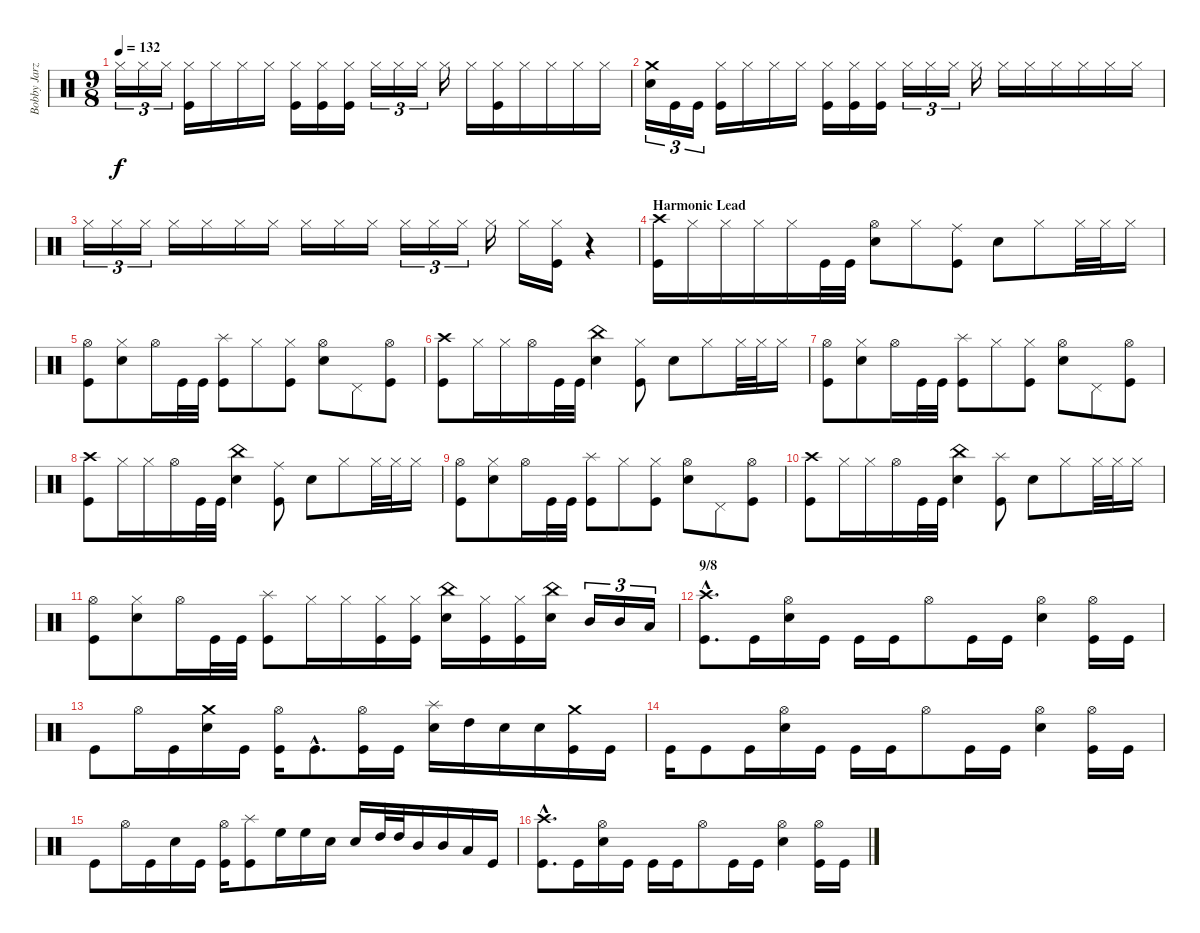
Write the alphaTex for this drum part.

\track ("Bobby Jarzombek" "Bobby Jarz") {instrument percussion}
\staff {score}
\articulation defaults
\ts (9 8)
\tempo 132
\clef neutral
\ks c "Hi-Hat (closed)".16{tu (3 2) dy f} "Hi-Hat (closed)".16{tu (3 2)} "Hi-Hat (closed)".16{tu (3 2)}
("Hi-Hat (closed)" "Kick (hit)").16 "Hi-Hat (closed)".16 "Hi-Hat (closed)".16 "Hi-Hat (closed)".16 ("Hi-Hat (closed)" "Kick (hit)").16 ("Hi-Hat (closed)" "Kick (hit)").16 ("Hi-Hat (closed)" "Kick (hit)").16 "Hi-Hat (closed)".16{tu (3 2)} "Hi-Hat (closed)".16{tu (3 2)} "Hi-Hat (closed)".16{tu (3 2)} "Hi-Hat (closed)".16 "Hi-Hat (closed)".16 ("Hi-Hat (closed)" "Kick (hit)").16 "Hi-Hat (closed)".16 "Hi-Hat (closed)".16 "Hi-Hat (closed)".16 "Hi-Hat (closed)".16 |
("Crash medium (hit)" "Electric Snare (hit)").16{tu (3 2)} "Kick (hit)".16{tu (3 2)} "Kick (hit)".16{tu (3 2)} ("Hi-Hat (closed)" "Kick (hit)").16 "Hi-Hat (closed)".16 "Hi-Hat (closed)".16 "Hi-Hat (closed)".16 ("Hi-Hat (closed)" "Kick (hit)").16 ("Hi-Hat (closed)" "Kick (hit)").16 ("Hi-Hat (closed)" "Kick (hit)").16 "Hi-Hat (closed)".16{tu (3 2)} "Hi-Hat (closed)".16{tu (3 2)} "Hi-Hat (closed)".16{tu (3 2)} "Hi-Hat (closed)".16 "Hi-Hat (closed)".16 "Hi-Hat (closed)".16 "Hi-Hat (closed)".16 "Hi-Hat (closed)".16 "Hi-Hat (closed)".16 "Hi-Hat (closed)".16 |
"Hi-Hat (closed)".16{tu (3 2)} "Hi-Hat (closed)".16{tu (3 2)} "Hi-Hat (closed)".16{tu (3 2)} "Hi-Hat (closed)".16 "Hi-Hat (closed)".16 "Hi-Hat (closed)".16 "Hi-Hat (closed)".16 "Hi-Hat (closed)".16 "Hi-Hat (closed)".16 "Hi-Hat (closed)".16 "Hi-Hat (closed)".16{tu (3 2)} "Hi-Hat (closed)".16{tu (3 2)} "Hi-Hat (closed)".16{tu (3 2)} "Hi-Hat (closed)".16 "Hi-Hat (closed)".16 ("Hi-Hat (closed)" "Kick (hit)").16 r.4 |
\section ("" "Harmonic Lead")
("Crash high (hit)" "Kick (hit)").16 "Hi-Hat (closed)".16 "Hi-Hat (closed)".16 "Hi-Hat (closed)".16 "Hi-Hat (closed)".16 "Kick (hit)".32 "Kick (hit)".32 ("Hi-Hat (open)" "Electric Snare (hit)").8 "Hi-Hat (closed)".8 ("Ride (middle)" "Kick (hit)").8 "Electric Snare (hit)".8 "Hi-Hat (closed)".8 "Hi-Hat (closed)".32 "Hi-Hat (closed)".32 "Hi-Hat (closed)".16 |
("Hi-Hat (open)" "Kick (hit)").8 ("Hi-Hat (closed)" "Electric Snare (hit)").8 "Hi-Hat (open)".16 "Kick (hit)".32 "Kick (hit)".32 ("Splash (hit)" "Kick (hit)").8 "Hi-Hat (closed)".8 ("Hi-Hat (closed)" "Kick (hit)").8 ("Hi-Hat (open)" "Electric Snare (hit)").8 "Pedal Hi-Hat (hit)".8 ("Hi-Hat (open)" "Kick (hit)").8 |
("Crash high (hit)" "Kick (hit)").8 "Hi-Hat (closed)".16 "Hi-Hat (closed)".16 "Hi-Hat (open)".16 "Kick (hit)".32 "Kick (hit)".32 ("China (hit)" "Electric Snare (hit)").4 ("Hi-Hat (closed)" "Kick (hit)").8 "Electric Snare (hit)".8 "Hi-Hat (closed)".8 "Hi-Hat (closed)".32 "Hi-Hat (closed)".32 "Hi-Hat (closed)".16 |
("Hi-Hat (open)" "Kick (hit)").8 ("Hi-Hat (closed)" "Electric Snare (hit)").8 "Hi-Hat (open)".16 "Kick (hit)".32 "Kick (hit)".32 ("Splash (hit)" "Kick (hit)").8 "Hi-Hat (closed)".8 ("Hi-Hat (closed)" "Kick (hit)").8 ("Hi-Hat (open)" "Electric Snare (hit)").8 "Pedal Hi-Hat (hit)".8 ("Hi-Hat (open)" "Kick (hit)").8 |
("Crash high (hit)" "Kick (hit)").8 "Hi-Hat (closed)".16 "Hi-Hat (closed)".16 "Hi-Hat (open)".16 "Kick (hit)".32 "Kick (hit)".32 ("China (hit)" "Electric Snare (hit)").4 ("Ride (middle)" "Kick (hit)").8 "Electric Snare (hit)".8 "Hi-Hat (closed)".8 "Hi-Hat (closed)".32 "Hi-Hat (closed)".32 "Hi-Hat (closed)".16 |
("Hi-Hat (open)" "Kick (hit)").8 ("Hi-Hat (closed)" "Electric Snare (hit)").8 "Hi-Hat (open)".16 "Kick (hit)".32 "Kick (hit)".32 ("Splash (hit)" "Kick (hit)").8 "Hi-Hat (closed)".8 ("Hi-Hat (closed)" "Kick (hit)").8 ("Hi-Hat (open)" "Electric Snare (hit)").8 "Pedal Hi-Hat (hit)".8 ("Hi-Hat (open)" "Kick (hit)").8 |
("Crash high (hit)" "Kick (hit)").8 "Hi-Hat (closed)".16 "Hi-Hat (closed)".16 "Hi-Hat (open)".16 "Kick (hit)".32 "Kick (hit)".32 ("China (hit)" "Electric Snare (hit)").4 ("Splash (hit)" "Kick (hit)").8 "Electric Snare (hit)".8 "Hi-Hat (closed)".8 "Hi-Hat (closed)".32 "Hi-Hat (closed)".32 "Hi-Hat (closed)".16 |
("Hi-Hat (open)" "Kick (hit)").8 ("Hi-Hat (closed)" "Electric Snare (hit)").8 "Hi-Hat (open)".16 "Kick (hit)".32 "Kick (hit)".32 ("Splash (hit)" "Kick (hit)").8 "Hi-Hat (closed)".16 "Hi-Hat (closed)".16 ("Hi-Hat (closed)" "Kick (hit)").16 ("Hi-Hat (closed)" "Kick (hit)").16 ("China (hit)" "Electric Snare (hit)").16 ("Hi-Hat (closed)" "Kick (hit)").16 ("Hi-Hat (closed)" "Kick (hit)").16 ("China (hit)" "Electric Snare (hit)").16 "Mid Tom (hit)".16{tu (3 2)} "Mid Tom (hit)".16{tu (3 2)} "Low Tom (hit)".16{tu (3 2)} |
\section ("" "9/8")
("Crash high (hit)"{hac} "Kick (hit)"{hac}).8{d} "Kick (hit)".16 ("Hi-Hat (open)" "Electric Snare (hit)").16 "Kick (hit)".16 "Kick (hit)".16 "Kick (hit)".16 "Hi-Hat (open)".8 "Kick (hit)".16 "Kick (hit)".16 ("Hi-Hat (open)" "Electric Snare (hit)").4 ("Hi-Hat (open)" "Kick (hit)").16 "Kick (hit)".16 |
"Kick (hit)".8 "Hi-Hat (open)".16 "Kick (hit)".16 ("Crash medium (hit)" "Electric Snare (hit)").16 "Kick (hit)".16 ("Hi-Hat (open)" "Kick (hit)").16 "Kick (hit)"{hac}.8{d} ("Hi-Hat (open)" "Kick (hit)").16 "Kick (hit)".16 ("Splash (hit)" "Electric Snare (hit)").16 "High Tom (hit)".16 "Electric Snare (hit)".16 "Electric Snare (hit)".16 ("Crash medium (hit)" "Kick (hit)").16 "Kick (hit)".16 |
"Kick (hit)".16 "Kick (hit)".8 "Kick (hit)".16 ("Hi-Hat (open)" "Electric Snare (hit)").16 "Kick (hit)".16 "Kick (hit)".16 "Kick (hit)".16 "Hi-Hat (open)".8 "Kick (hit)".16 "Kick (hit)".16 ("Hi-Hat (open)" "Electric Snare (hit)").4 ("Hi-Hat (open)" "Kick (hit)").16 "Kick (hit)".16 |
"Kick (hit)".8 "Hi-Hat (open)".16 "Kick (hit)".16 "Electric Snare (hit)".16 "Kick (hit)".16 ("Hi-Hat (open)" "Kick (hit)").16 ("Splash (hit)" "Kick (hit)").8 "High Floor Tom (hit)".16 "High Floor Tom (hit)".16 "Electric Snare (hit)".16 "Electric Snare (hit)".16 "High Tom (hit)".32 "High Tom (hit)".32 "Mid Tom (hit)".16 "Mid Tom (hit)".16 "Low Tom (hit)".16 "Kick (hit)".16 |
("Crash high (hit)"{hac} "Kick (hit)"{hac}).8{d} "Kick (hit)".16 ("Hi-Hat (open)" "Electric Snare (hit)").16 "Kick (hit)".16 "Kick (hit)".16 "Kick (hit)".16 "Hi-Hat (open)".8 "Kick (hit)".16 "Kick (hit)".16 ("Hi-Hat (open)" "Electric Snare (hit)").4 ("Hi-Hat (open)" "Kick (hit)").16 "Kick (hit)".16
